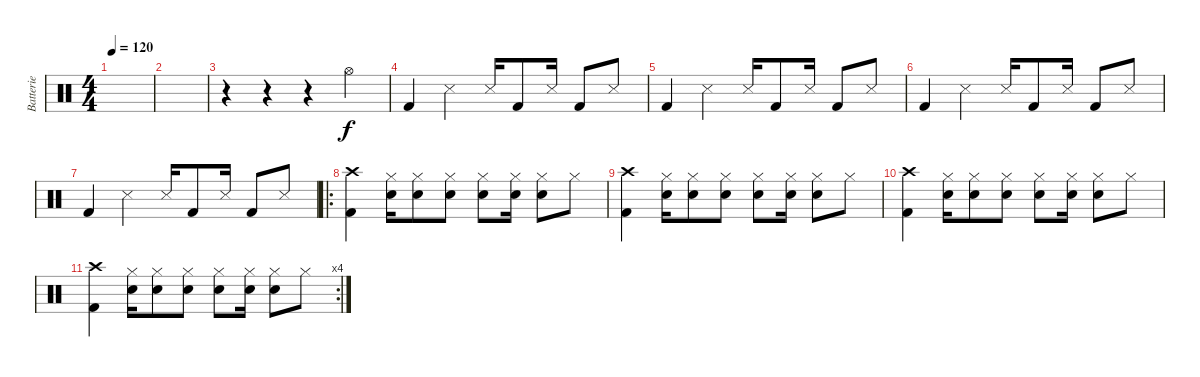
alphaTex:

\track ("Batterie" "Batterie") {instrument percussion}
\staff {score}
\articulation defaults
\ts (4 4)
\tempo 120
\clef neutral
\ks c
|
|
r.4 r.4 r.4 "Hi-Hat (open)".4 |
"Kick (hit) 2".4 "Snare (side stick) 3".4 "Snare (side stick) 3".16 "Kick (hit) 2".8 "Snare (side stick) 3".16 "Kick (hit) 2".8 "Snare (side stick) 3".8 |
"Kick (hit) 2".4 "Snare (side stick) 3".4 "Snare (side stick) 3".16 "Kick (hit) 2".8 "Snare (side stick) 3".16 "Kick (hit) 2".8 "Snare (side stick) 3".8 |
"Kick (hit) 2".4 "Snare (side stick) 3".4 "Snare (side stick) 3".16 "Kick (hit) 2".8 "Snare (side stick) 3".16 "Kick (hit) 2".8 "Snare (side stick) 3".8 |
"Kick (hit) 2".4 "Snare (side stick) 3".4 "Snare (side stick) 3".16 "Kick (hit) 2".8 "Snare (side stick) 3".16 "Kick (hit) 2".8 "Snare (side stick) 3".8 |
\ro
("Crash high (hit)" "Kick (hit) 2").4 ("Hi-Hat (closed)" "Snare (hit) 2").16 ("Hi-Hat (closed)" "Snare (hit) 2").8 ("Hi-Hat (closed)" "Snare (hit) 2").8 ("Hi-Hat (closed)" "Snare (hit) 2").8 ("Hi-Hat (closed)" "Snare (hit) 2").16 ("Hi-Hat (closed)" "Snare (hit) 2").8 "Hi-Hat (closed)".8 |
("Crash high (hit)" "Kick (hit) 2").4 ("Hi-Hat (closed)" "Snare (hit) 2").16 ("Hi-Hat (closed)" "Snare (hit) 2").8 ("Hi-Hat (closed)" "Snare (hit) 2").8 ("Hi-Hat (closed)" "Snare (hit) 2").8 ("Hi-Hat (closed)" "Snare (hit) 2").16 ("Hi-Hat (closed)" "Snare (hit) 2").8 "Hi-Hat (closed)".8 |
("Crash high (hit)" "Kick (hit) 2").4 ("Hi-Hat (closed)" "Snare (hit) 2").16 ("Hi-Hat (closed)" "Snare (hit) 2").8 ("Hi-Hat (closed)" "Snare (hit) 2").8 ("Hi-Hat (closed)" "Snare (hit) 2").8 ("Hi-Hat (closed)" "Snare (hit) 2").16 ("Hi-Hat (closed)" "Snare (hit) 2").8 "Hi-Hat (closed)".8 |
\rc 4
("Crash high (hit)" "Kick (hit) 2").4 ("Hi-Hat (closed)" "Snare (hit) 2").16 ("Hi-Hat (closed)" "Snare (hit) 2").8 ("Hi-Hat (closed)" "Snare (hit) 2").8 ("Hi-Hat (closed)" "Snare (hit) 2").8 ("Hi-Hat (closed)" "Snare (hit) 2").16 ("Hi-Hat (closed)" "Snare (hit) 2").8 "Hi-Hat (closed)".8
